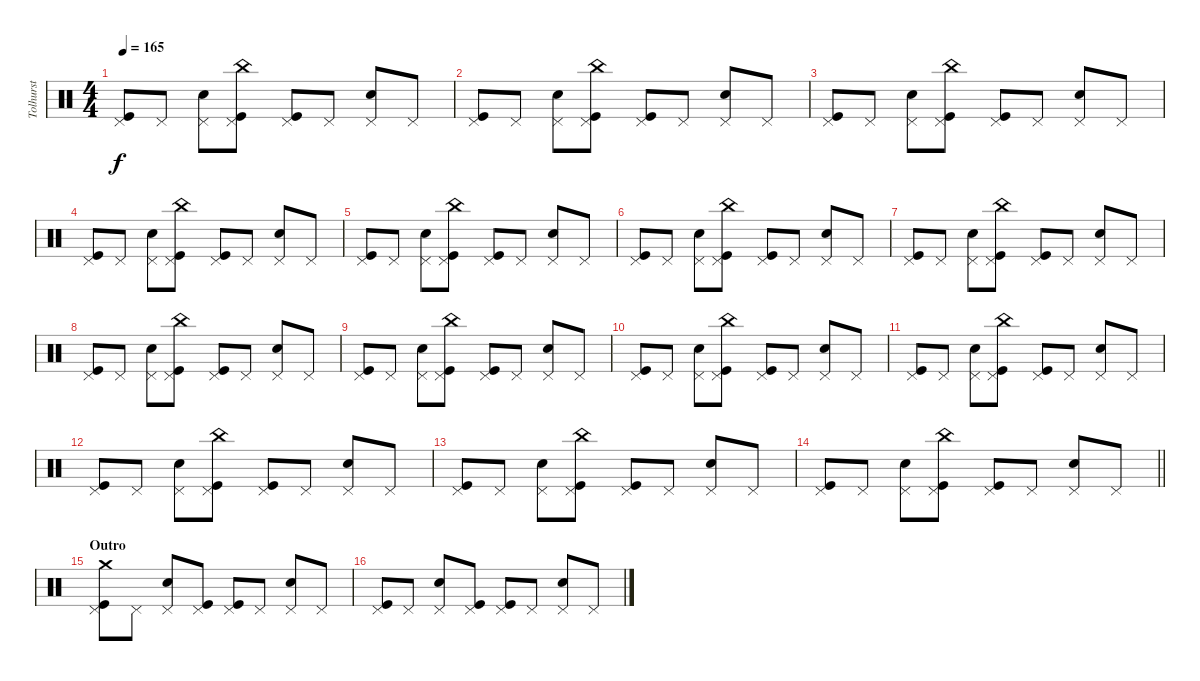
\track ("Tolhurst" "Tolhurst") {instrument percussion}
\staff {score}
\articulation defaults
\ts (4 4)
\tempo 165
\clef neutral
\ks c
("Pedal Hi-Hat (hit)" "Kick (hit)").8{dy f} "Pedal Hi-Hat (hit)".8 ("Pedal Hi-Hat (hit)" "Snare (hit) 2").8 ("China (hit)" "Pedal Hi-Hat (hit)" "Kick (hit)").8 ("Pedal Hi-Hat (hit)" "Kick (hit)").8 "Pedal Hi-Hat (hit)".8 ("Pedal Hi-Hat (hit)" "Snare (hit) 2").8 "Pedal Hi-Hat (hit)".8 |
("Pedal Hi-Hat (hit)" "Kick (hit)").8 "Pedal Hi-Hat (hit)".8 ("Pedal Hi-Hat (hit)" "Snare (hit) 2").8 ("China (hit)" "Pedal Hi-Hat (hit)" "Kick (hit)").8 ("Pedal Hi-Hat (hit)" "Kick (hit)").8 "Pedal Hi-Hat (hit)".8 ("Pedal Hi-Hat (hit)" "Snare (hit) 2").8 "Pedal Hi-Hat (hit)".8 |
("Pedal Hi-Hat (hit)" "Kick (hit)").8 "Pedal Hi-Hat (hit)".8 ("Pedal Hi-Hat (hit)" "Snare (hit) 2").8 ("China (hit)" "Pedal Hi-Hat (hit)" "Kick (hit)").8 ("Pedal Hi-Hat (hit)" "Kick (hit)").8 "Pedal Hi-Hat (hit)".8 ("Pedal Hi-Hat (hit)" "Snare (hit) 2").8 "Pedal Hi-Hat (hit)".8 |
("Pedal Hi-Hat (hit)" "Kick (hit)").8 "Pedal Hi-Hat (hit)".8 ("Pedal Hi-Hat (hit)" "Snare (hit) 2").8 ("China (hit)" "Pedal Hi-Hat (hit)" "Kick (hit)").8 ("Pedal Hi-Hat (hit)" "Kick (hit)").8 "Pedal Hi-Hat (hit)".8 ("Pedal Hi-Hat (hit)" "Snare (hit) 2").8 "Pedal Hi-Hat (hit)".8 |
("Pedal Hi-Hat (hit)" "Kick (hit)").8 "Pedal Hi-Hat (hit)".8 ("Pedal Hi-Hat (hit)" "Snare (hit) 2").8 ("China (hit)" "Pedal Hi-Hat (hit)" "Kick (hit)").8 ("Pedal Hi-Hat (hit)" "Kick (hit)").8 "Pedal Hi-Hat (hit)".8 ("Pedal Hi-Hat (hit)" "Snare (hit) 2").8 "Pedal Hi-Hat (hit)".8 |
("Pedal Hi-Hat (hit)" "Kick (hit)").8 "Pedal Hi-Hat (hit)".8 ("Pedal Hi-Hat (hit)" "Snare (hit) 2").8 ("China (hit)" "Pedal Hi-Hat (hit)" "Kick (hit)").8 ("Pedal Hi-Hat (hit)" "Kick (hit)").8 "Pedal Hi-Hat (hit)".8 ("Pedal Hi-Hat (hit)" "Snare (hit) 2").8 "Pedal Hi-Hat (hit)".8 |
("Pedal Hi-Hat (hit)" "Kick (hit)").8 "Pedal Hi-Hat (hit)".8 ("Pedal Hi-Hat (hit)" "Snare (hit) 2").8 ("China (hit)" "Pedal Hi-Hat (hit)" "Kick (hit)").8 ("Pedal Hi-Hat (hit)" "Kick (hit)").8 "Pedal Hi-Hat (hit)".8 ("Pedal Hi-Hat (hit)" "Snare (hit) 2").8 "Pedal Hi-Hat (hit)".8 |
("Pedal Hi-Hat (hit)" "Kick (hit)").8 "Pedal Hi-Hat (hit)".8 ("Pedal Hi-Hat (hit)" "Snare (hit) 2").8 ("China (hit)" "Pedal Hi-Hat (hit)" "Kick (hit)").8 ("Pedal Hi-Hat (hit)" "Kick (hit)").8 "Pedal Hi-Hat (hit)".8 ("Pedal Hi-Hat (hit)" "Snare (hit) 2").8 "Pedal Hi-Hat (hit)".8 |
("Pedal Hi-Hat (hit)" "Kick (hit)").8 "Pedal Hi-Hat (hit)".8 ("Pedal Hi-Hat (hit)" "Snare (hit) 2").8 ("China (hit)" "Pedal Hi-Hat (hit)" "Kick (hit)").8 ("Pedal Hi-Hat (hit)" "Kick (hit)").8 "Pedal Hi-Hat (hit)".8 ("Pedal Hi-Hat (hit)" "Snare (hit) 2").8 "Pedal Hi-Hat (hit)".8 |
("Pedal Hi-Hat (hit)" "Kick (hit)").8 "Pedal Hi-Hat (hit)".8 ("Pedal Hi-Hat (hit)" "Snare (hit) 2").8 ("China (hit)" "Pedal Hi-Hat (hit)" "Kick (hit)").8 ("Pedal Hi-Hat (hit)" "Kick (hit)").8 "Pedal Hi-Hat (hit)".8 ("Pedal Hi-Hat (hit)" "Snare (hit) 2").8 "Pedal Hi-Hat (hit)".8 |
("Pedal Hi-Hat (hit)" "Kick (hit)").8 "Pedal Hi-Hat (hit)".8 ("Pedal Hi-Hat (hit)" "Snare (hit) 2").8 ("China (hit)" "Pedal Hi-Hat (hit)" "Kick (hit)").8 ("Pedal Hi-Hat (hit)" "Kick (hit)").8 "Pedal Hi-Hat (hit)".8 ("Pedal Hi-Hat (hit)" "Snare (hit) 2").8 "Pedal Hi-Hat (hit)".8 |
("Pedal Hi-Hat (hit)" "Kick (hit)").8 "Pedal Hi-Hat (hit)".8 ("Pedal Hi-Hat (hit)" "Snare (hit) 2").8 ("China (hit)" "Pedal Hi-Hat (hit)" "Kick (hit)").8 ("Pedal Hi-Hat (hit)" "Kick (hit)").8 "Pedal Hi-Hat (hit)".8 ("Pedal Hi-Hat (hit)" "Snare (hit) 2").8 "Pedal Hi-Hat (hit)".8 |
("Pedal Hi-Hat (hit)" "Kick (hit)").8 "Pedal Hi-Hat (hit)".8 ("Pedal Hi-Hat (hit)" "Snare (hit) 2").8 ("China (hit)" "Pedal Hi-Hat (hit)" "Kick (hit)").8 ("Pedal Hi-Hat (hit)" "Kick (hit)").8 "Pedal Hi-Hat (hit)".8 ("Pedal Hi-Hat (hit)" "Snare (hit) 2").8 "Pedal Hi-Hat (hit)".8 |
\barLineRight lightlight
("Pedal Hi-Hat (hit)" "Kick (hit)").8 "Pedal Hi-Hat (hit)".8 ("Pedal Hi-Hat (hit)" "Snare (hit) 2").8 ("China (hit)" "Pedal Hi-Hat (hit)" "Kick (hit)").8 ("Pedal Hi-Hat (hit)" "Kick (hit)").8 "Pedal Hi-Hat (hit)".8 ("Pedal Hi-Hat (hit)" "Snare (hit) 2").8 "Pedal Hi-Hat (hit)".8 |
\section ("" "Outro")
("Crash medium (hit)" "Pedal Hi-Hat (hit)" "Kick (hit)").8 "Pedal Hi-Hat (hit)".8 ("Pedal Hi-Hat (hit)" "Snare (hit) 2").8 ("Pedal Hi-Hat (hit)" "Kick (hit)").8 ("Pedal Hi-Hat (hit)" "Kick (hit)").8 "Pedal Hi-Hat (hit)".8 ("Pedal Hi-Hat (hit)" "Snare (hit) 2").8 "Pedal Hi-Hat (hit)".8 |
("Pedal Hi-Hat (hit)" "Kick (hit)").8 "Pedal Hi-Hat (hit)".8 ("Pedal Hi-Hat (hit)" "Snare (hit) 2").8 ("Pedal Hi-Hat (hit)" "Kick (hit)").8 ("Pedal Hi-Hat (hit)" "Kick (hit)").8 "Pedal Hi-Hat (hit)".8 ("Pedal Hi-Hat (hit)" "Snare (hit) 2").8 "Pedal Hi-Hat (hit)".8
